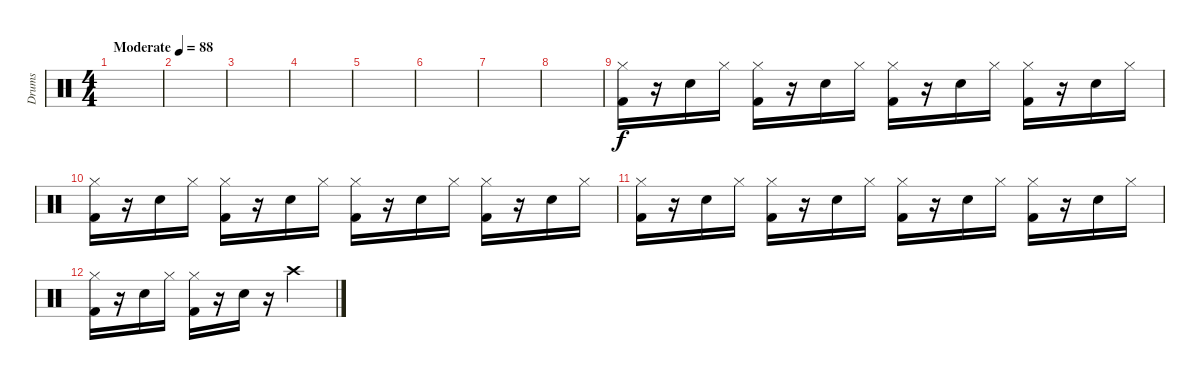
\track ("Drums" "Drums") {instrument percussion}
\staff {score}
\articulation defaults
\ts (4 4)
\tempo (88 "Moderate")
\clef neutral
\ks c
|
|
|
|
|
|
|
|
("Kick (hit) 2" "Hi-Hat (closed)").16 r.16 "Snare (hit) 2".16 "Hi-Hat (closed)".16 ("Kick (hit) 2" "Hi-Hat (closed)").16 r.16 "Snare (hit) 2".16 "Hi-Hat (closed)".16 ("Kick (hit) 2" "Hi-Hat (closed)").16 r.16 "Snare (hit) 2".16 "Hi-Hat (closed)".16 ("Kick (hit) 2" "Hi-Hat (closed)").16 r.16 "Snare (hit) 2".16 "Hi-Hat (closed)".16 |
("Kick (hit) 2" "Hi-Hat (closed)").16 r.16 "Snare (hit) 2".16 "Hi-Hat (closed)".16 ("Kick (hit) 2" "Hi-Hat (closed)").16 r.16 "Snare (hit) 2".16 "Hi-Hat (closed)".16 ("Kick (hit) 2" "Hi-Hat (closed)").16 r.16 "Snare (hit) 2".16 "Hi-Hat (closed)".16 ("Kick (hit) 2" "Hi-Hat (closed)").16 r.16 "Snare (hit) 2".16 "Hi-Hat (closed)".16 |
("Kick (hit) 2" "Hi-Hat (closed)").16 r.16 "Snare (hit) 2".16 "Hi-Hat (closed)".16 ("Kick (hit) 2" "Hi-Hat (closed)").16 r.16 "Snare (hit) 2".16 "Hi-Hat (closed)".16 ("Kick (hit) 2" "Hi-Hat (closed)").16 r.16 "Snare (hit) 2".16 "Hi-Hat (closed)".16 ("Kick (hit) 2" "Hi-Hat (closed)").16 r.16 "Snare (hit) 2".16 "Hi-Hat (closed)".16 |
("Kick (hit) 2" "Hi-Hat (closed)").16 r.16 "Snare (hit) 2".16 "Hi-Hat (closed)".16 ("Kick (hit) 2" "Hi-Hat (closed)").16 r.16 "Snare (hit) 2".16 r.16 "Crash high (hit)".2
